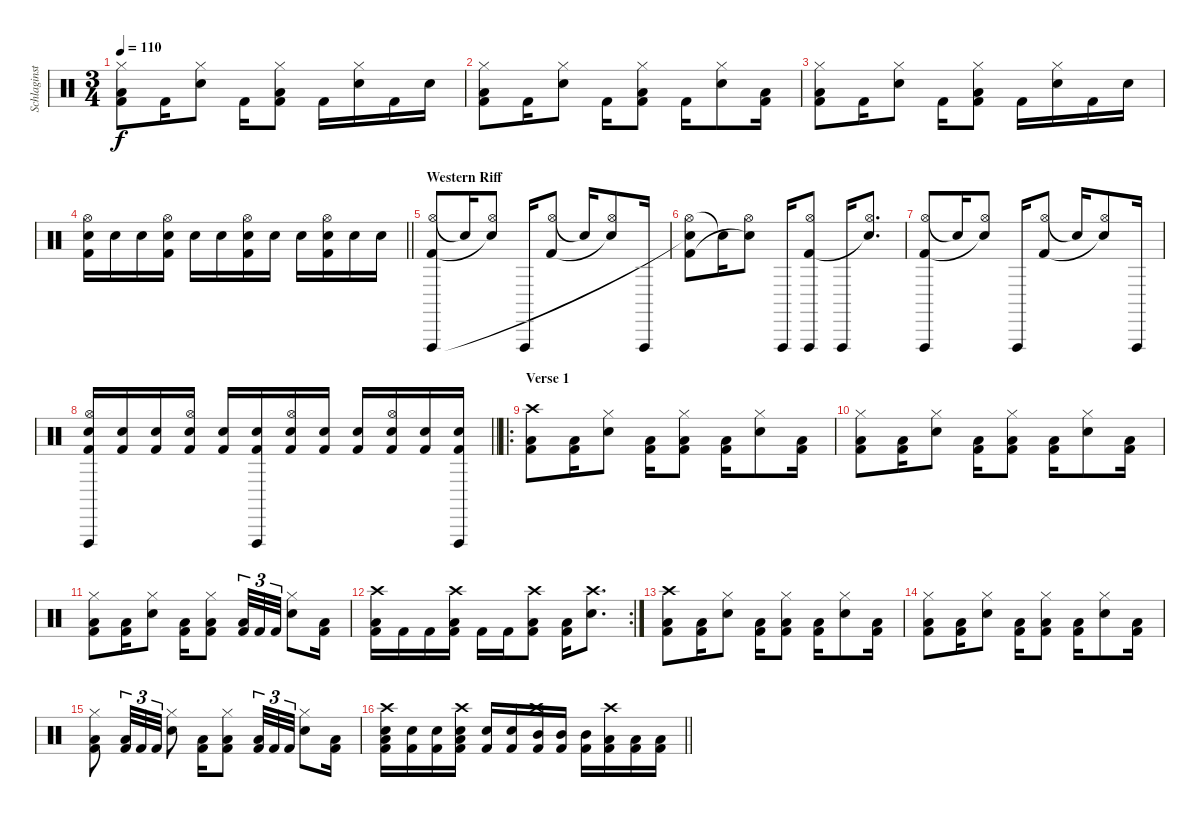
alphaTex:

\track ("Schlaginstrumente - Auswahl" "Schlaginst") {instrument percussion}
\staff {score}
\articulation defaults
\ts (3 4)
\tempo 110
\clef neutral
\ks c
("Hi-Hat (closed)" "Low Tom (hit)" "Kick (hit) 2").8{dy f} "Kick (hit) 2".16 ("Hi-Hat (closed)" "Snare (hit) 2").8 "Kick (hit) 2".16 ("Hi-Hat (closed)" "Low Tom (hit)" "Kick (hit) 2").8 "Kick (hit) 2".16 ("Hi-Hat (closed)" "Snare (hit) 2").16 "Kick (hit) 2".16 "Snare (hit) 2".16 |
("Hi-Hat (closed)" "Low Tom (hit)" "Kick (hit) 2").8 "Kick (hit) 2".16 ("Hi-Hat (closed)" "Snare (hit) 2").8 "Kick (hit) 2".16 ("Hi-Hat (closed)" "Low Tom (hit)" "Kick (hit) 2").8 "Kick (hit) 2".16 ("Hi-Hat (closed)" "Snare (hit) 2").8 ("Low Tom (hit)" "Kick (hit) 2").16 |
("Hi-Hat (closed)" "Low Tom (hit)" "Kick (hit) 2").8 "Kick (hit) 2".16 ("Hi-Hat (closed)" "Snare (hit) 2").8 "Kick (hit) 2".16 ("Hi-Hat (closed)" "Low Tom (hit)" "Kick (hit) 2").8 "Kick (hit) 2".16 ("Hi-Hat (closed)" "Snare (hit) 2").16 "Kick (hit) 2".16 "Snare (hit) 2".16 |
\barLineRight lightlight
("Hi-Hat (open)" "Snare (hit) 2" "Kick (hit) 2").16 "Snare (hit) 2".16 "Snare (hit) 2".16 ("Hi-Hat (open)" "Snare (hit) 2" "Kick (hit) 2").16 "Snare (hit) 2".16 "Snare (hit) 2".16 ("Hi-Hat (open)" "Snare (hit) 2" "Kick (hit) 2").16 "Snare (hit) 2".16 "Snare (hit) 2".16 ("Hi-Hat (open)" "Snare (hit) 2" "Kick (hit) 2").16 "Snare (hit) 2".16 "Snare (hit) 2".16 |
\section ("" "Western Riff")
("Hi-Hat (open)" "Kick (hit) 2" "Vibraslap (hit)").8 "Snare (hit)"{t}.16 ("Hi-Hat (open)" "Snare (hit)"{t}).8 "Vibraslap (hit)".16 ("Hi-Hat (open)" "Kick (hit) 2").8 "Snare (hit)"{t}.16 ("Hi-Hat (open)" "Snare (hit)"{t}).8 "Vibraslap (hit)".16 |
("Hi-Hat (open)" "Kick (hit) 2" "Snare (hit)"{t}).8 "Snare (hit)"{t}.16 ("Hi-Hat (open)" "Snare (hit)"{t}).8 "Vibraslap (hit)".16 ("Hi-Hat (open)" "Kick (hit) 2" "Vibraslap (hit)").8 "Vibraslap (hit)".16 ("Hi-Hat (open)" "Snare (hit)"{t}).8{d} |
("Hi-Hat (open)" "Kick (hit) 2" "Vibraslap (hit)").8 "Snare (hit)"{t}.16 ("Hi-Hat (open)" "Snare (hit)"{t}).8 "Vibraslap (hit)".16 ("Hi-Hat (open)" "Kick (hit) 2").8 "Snare (hit)"{t}.16 ("Hi-Hat (open)" "Snare (hit)"{t}).8 "Vibraslap (hit)".16 |
\barLineRight lightlight
("Hi-Hat (open)" "Vibraslap (hit)" "Snare (hit) 2" "Kick (hit) 2").16 ("Snare (hit) 2" "Kick (hit) 2").16 ("Snare (hit) 2" "Kick (hit) 2").16 ("Hi-Hat (open)" "Snare (hit) 2" "Kick (hit) 2").16 ("Snare (hit) 2" "Kick (hit) 2").16 ("Vibraslap (hit)" "Snare (hit) 2" "Kick (hit) 2").16 ("Hi-Hat (open)" "Snare (hit) 2" "Kick (hit) 2").16 ("Snare (hit) 2" "Kick (hit) 2").16 ("Snare (hit) 2" "Kick (hit) 2").16 ("Hi-Hat (open)" "Snare (hit) 2" "Kick (hit) 2").16 ("Snare (hit) 2" "Kick (hit) 2").16 ("Vibraslap (hit)" "Snare (hit) 2" "Kick (hit) 2").16 |
\ro
\section ("" "Verse 1")
("Crash high (hit)" "Low Tom (hit)" "Kick (hit) 2").8 ("Low Tom (hit)" "Kick (hit) 2").16 ("Hi-Hat (closed)" "Snare (hit) 2").8 ("Low Tom (hit)" "Kick (hit) 2").16 ("Hi-Hat (closed)" "Low Tom (hit)" "Kick (hit) 2").8 ("Low Tom (hit)" "Kick (hit) 2").16 ("Hi-Hat (closed)" "Snare (hit) 2").8 ("Low Tom (hit)" "Kick (hit) 2").16 |
("Hi-Hat (closed)" "Low Tom (hit)" "Kick (hit) 2").8 ("Low Tom (hit)" "Kick (hit) 2").16 ("Hi-Hat (closed)" "Snare (hit) 2").8 ("Low Tom (hit)" "Kick (hit) 2").16 ("Hi-Hat (closed)" "Low Tom (hit)" "Kick (hit) 2").8 ("Low Tom (hit)" "Kick (hit) 2").16 ("Hi-Hat (closed)" "Snare (hit) 2").8 ("Low Tom (hit)" "Kick (hit) 2").16 |
("Hi-Hat (closed)" "Low Tom (hit)" "Kick (hit) 2").8 ("Low Tom (hit)" "Kick (hit) 2").16 ("Hi-Hat (closed)" "Snare (hit) 2").8 ("Low Tom (hit)" "Kick (hit) 2").16 ("Hi-Hat (closed)" "Low Tom (hit)" "Kick (hit) 2").8 ("Low Tom (hit)" "Kick (hit) 2").32{tu (3 2)} "Kick (hit) 2".32{tu (3 2)} "Kick (hit) 2".32{tu (3 2)} ("Hi-Hat (closed)" "Snare (hit) 2").8 ("Low Tom (hit)" "Kick (hit) 2").16 |
\rc 2
("Crash high (hit)" "Low Tom (hit)" "Kick (hit) 2").16 "Kick (hit) 2".16 "Kick (hit) 2".16 ("Crash high (hit)" "Low Tom (hit)" "Kick (hit) 2").16 "Kick (hit) 2".16 "Kick (hit) 2".16 ("Crash high (hit)" "Low Tom (hit)" "Kick (hit) 2").8 ("Low Tom (hit)" "Kick (hit) 2").16 ("Crash high (hit)" "Snare (hit) 2").8{d} |
("Crash high (hit)" "Low Tom (hit)" "Kick (hit) 2").8 ("Low Tom (hit)" "Kick (hit) 2").16 ("Hi-Hat (closed)" "Snare (hit) 2").8 ("Low Tom (hit)" "Kick (hit) 2").16 ("Hi-Hat (closed)" "Low Tom (hit)" "Kick (hit) 2").8 ("Low Tom (hit)" "Kick (hit) 2").16 ("Hi-Hat (closed)" "Snare (hit) 2").8 ("Low Tom (hit)" "Kick (hit) 2").16 |
("Hi-Hat (closed)" "Low Tom (hit)" "Kick (hit) 2").8 ("Low Tom (hit)" "Kick (hit) 2").16 ("Hi-Hat (closed)" "Snare (hit) 2").8 ("Low Tom (hit)" "Kick (hit) 2").16 ("Hi-Hat (closed)" "Low Tom (hit)" "Kick (hit) 2").8 ("Low Tom (hit)" "Kick (hit) 2").16 ("Hi-Hat (closed)" "Snare (hit) 2").8 ("Low Tom (hit)" "Kick (hit) 2").16 |
("Hi-Hat (closed)" "Low Tom (hit)" "Kick (hit) 2").8 ("Low Tom (hit)" "Kick (hit) 2").32{tu (3 2)} "Kick (hit) 2".32{tu (3 2)} "Kick (hit) 2".32{tu (3 2)} ("Hi-Hat (closed)" "Snare (hit) 2").8 ("Low Tom (hit)" "Kick (hit) 2").16 ("Hi-Hat (closed)" "Low Tom (hit)" "Kick (hit) 2").8 ("Low Tom (hit)" "Kick (hit) 2").32{tu (3 2)} "Kick (hit) 2".32{tu (3 2)} "Kick (hit) 2".32{tu (3 2)} ("Hi-Hat (closed)" "Snare (hit) 2").8 ("Low Tom (hit)" "Kick (hit) 2").16 |
\barLineRight lightlight
("Crash high (hit)" "Snare (hit) 2" "Low Tom (hit)" "Kick (hit) 2").16 ("Snare (hit) 2" "Kick (hit) 2").16 ("Snare (hit) 2" "Kick (hit) 2").16 ("Crash high (hit)" "Snare (hit) 2" "Low Tom (hit)" "Kick (hit) 2").16 ("Snare (hit) 2" "Kick (hit) 2").16 ("Snare (hit) 2" "Kick (hit) 2").16 ("Crash high (hit)" "Mid Tom (hit)" "Kick (hit) 2").16 ("Mid Tom (hit)" "Kick (hit) 2").16 ("Mid Tom (hit)" "Kick (hit) 2").16 ("Crash high (hit)" "Low Tom (hit)" "Kick (hit) 2").16 ("Low Tom (hit)" "Kick (hit) 2").16 ("Low Tom (hit)" "Kick (hit) 2").16
